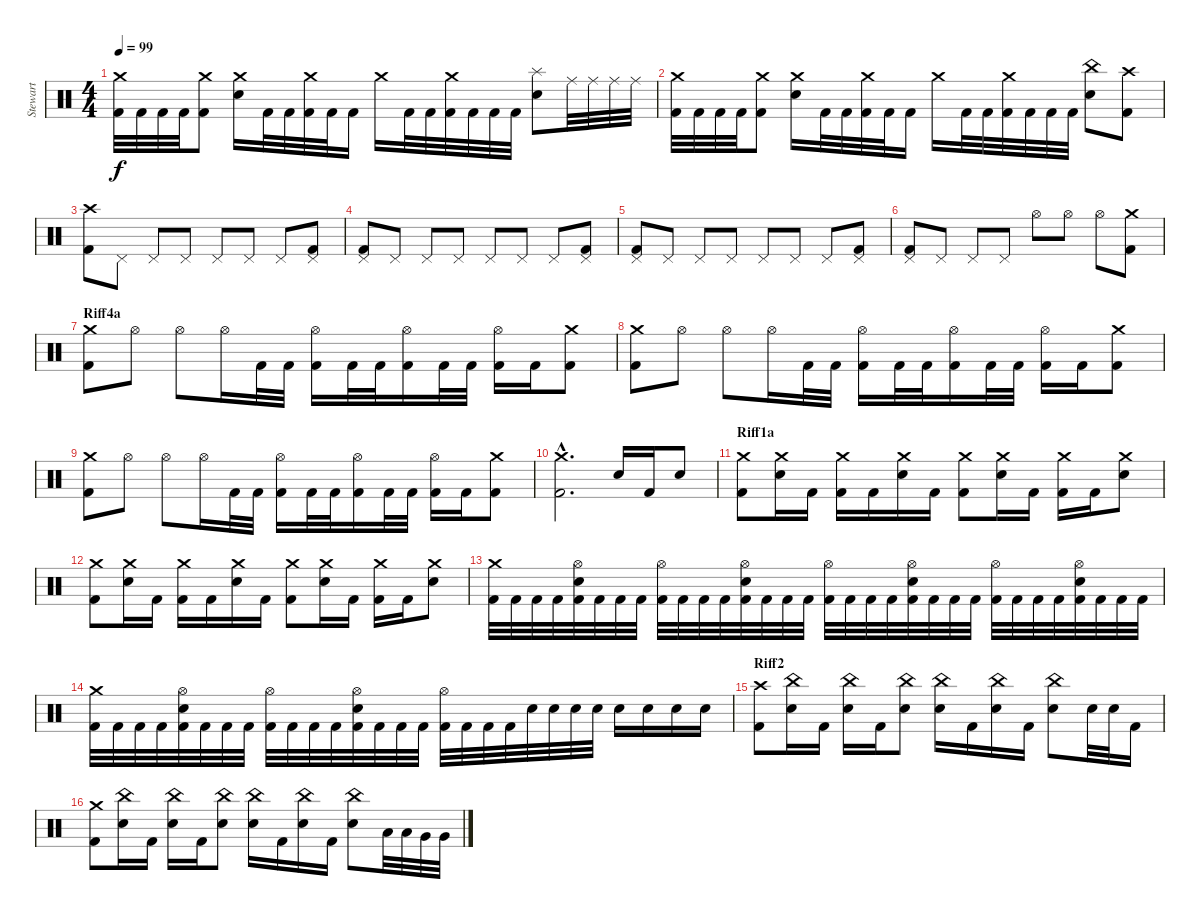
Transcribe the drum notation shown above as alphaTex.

\track ("Stewart" "Stewart") {instrument percussion}
\staff {score}
\articulation defaults
\ts (4 4)
\tempo 99
\clef neutral
\ks c
("Crash medium (hit)" "Kick (hit) 2").32{dy f} "Kick (hit) 2".32 "Kick (hit) 2".32 "Kick (hit) 2".32 ("Crash medium (hit)" "Kick (hit) 2").8 ("Crash medium (hit)" "Electric Snare (hit)").16 "Kick (hit) 2".32 "Kick (hit) 2".32 ("Crash medium (hit)" "Kick (hit) 2").32 "Kick (hit) 2".32 "Kick (hit) 2".16 "Crash medium (hit)".16 "Kick (hit) 2".32 "Kick (hit) 2".32 ("Crash medium (hit)" "Kick (hit) 2").32 "Kick (hit) 2".32 "Kick (hit) 2".32 "Kick (hit) 2".32 ("Splash (hit)" "Electric Snare (hit)").8 "Ride (middle)".32 "Ride (middle)".32 "Ride (middle)".32 "Ride (middle)".32 |
("Crash medium (hit)" "Kick (hit) 2").32 "Kick (hit) 2".32 "Kick (hit) 2".32 "Kick (hit) 2".32 ("Crash medium (hit)" "Kick (hit) 2").8 ("Crash medium (hit)" "Electric Snare (hit)").16 "Kick (hit) 2".32 "Kick (hit) 2".32 ("Crash medium (hit)" "Kick (hit) 2").32 "Kick (hit) 2".32 "Kick (hit) 2".16 "Crash medium (hit)".16 "Kick (hit) 2".32 "Kick (hit) 2".32 ("Crash medium (hit)" "Kick (hit) 2").32 "Kick (hit) 2".32 "Kick (hit) 2".32 "Kick (hit) 2".32 ("China (hit)" "Electric Snare (hit)").8 ("Crash high (hit)" "Kick (hit) 2").8 |
("Crash high (hit)" "Kick (hit) 2").8 "Pedal Hi-Hat (hit)".8 "Pedal Hi-Hat (hit)".8 "Pedal Hi-Hat (hit)".8 "Pedal Hi-Hat (hit)".8 "Pedal Hi-Hat (hit)".8 "Pedal Hi-Hat (hit)".8 ("Pedal Hi-Hat (hit)" "Kick (hit) 2").8 |
("Pedal Hi-Hat (hit)" "Kick (hit) 2").8 "Pedal Hi-Hat (hit)".8 "Pedal Hi-Hat (hit)".8 "Pedal Hi-Hat (hit)".8 "Pedal Hi-Hat (hit)".8 "Pedal Hi-Hat (hit)".8 "Pedal Hi-Hat (hit)".8 ("Pedal Hi-Hat (hit)" "Kick (hit) 2").8 |
("Pedal Hi-Hat (hit)" "Kick (hit) 2").8 "Pedal Hi-Hat (hit)".8 "Pedal Hi-Hat (hit)".8 "Pedal Hi-Hat (hit)".8 "Pedal Hi-Hat (hit)".8 "Pedal Hi-Hat (hit)".8 "Pedal Hi-Hat (hit)".8 ("Pedal Hi-Hat (hit)" "Kick (hit) 2").8 |
("Pedal Hi-Hat (hit)" "Kick (hit) 2").8 "Pedal Hi-Hat (hit)".8 "Pedal Hi-Hat (hit)".8 "Pedal Hi-Hat (hit)".8 "Hi-Hat (open)".8 "Hi-Hat (open)".8 "Hi-Hat (open)".8 ("Crash medium (hit)" "Kick (hit) 2").8 |
\section ("" "Riff4a")
("Crash medium (hit)" "Kick (hit) 2").8 "Hi-Hat (open)".8 "Hi-Hat (open)".8 "Hi-Hat (open)".16 "Kick (hit) 2".32 "Kick (hit) 2".32 ("Hi-Hat (open)" "Kick (hit) 2").16 "Kick (hit) 2".32 "Kick (hit) 2".32 ("Hi-Hat (open)" "Kick (hit) 2").16 "Kick (hit) 2".32 "Kick (hit) 2".32 ("Hi-Hat (open)" "Kick (hit) 2").16 "Kick (hit) 2".16 ("Crash medium (hit)" "Kick (hit) 2").8 |
("Crash medium (hit)" "Kick (hit) 2").8 "Hi-Hat (open)".8 "Hi-Hat (open)".8 "Hi-Hat (open)".16 "Kick (hit) 2".32 "Kick (hit) 2".32 ("Hi-Hat (open)" "Kick (hit) 2").16 "Kick (hit) 2".32 "Kick (hit) 2".32 ("Hi-Hat (open)" "Kick (hit) 2").16 "Kick (hit) 2".32 "Kick (hit) 2".32 ("Hi-Hat (open)" "Kick (hit) 2").16 "Kick (hit) 2".16 ("Crash medium (hit)" "Kick (hit) 2").8 |
("Crash medium (hit)" "Kick (hit) 2").8 "Hi-Hat (open)".8 "Hi-Hat (open)".8 "Hi-Hat (open)".16 "Kick (hit) 2".32 "Kick (hit) 2".32 ("Hi-Hat (open)" "Kick (hit) 2").16 "Kick (hit) 2".32 "Kick (hit) 2".32 ("Hi-Hat (open)" "Kick (hit) 2").16 "Kick (hit) 2".32 "Kick (hit) 2".32 ("Hi-Hat (open)" "Kick (hit) 2").16 "Kick (hit) 2".16 ("Crash medium (hit)" "Kick (hit) 2").8 |
("Crash medium (hit)"{hac} "Kick (hit) 2"{hac}).2{d} "Electric Snare (hit)".16 "Kick (hit) 2".16 "Electric Snare (hit)".8 |
\section ("" "Riff1a")
("Crash medium (hit)" "Kick (hit) 2").8 ("Crash medium (hit)" "Electric Snare (hit)").16 "Kick (hit) 2".16 ("Crash medium (hit)" "Kick (hit) 2").16 "Kick (hit) 2".16 ("Crash medium (hit)" "Electric Snare (hit)").16 "Kick (hit) 2".16 ("Crash medium (hit)" "Kick (hit) 2").8 ("Crash medium (hit)" "Electric Snare (hit)").16 "Kick (hit) 2".16 ("Crash medium (hit)" "Kick (hit) 2").16 "Kick (hit) 2".16 ("Crash medium (hit)" "Electric Snare (hit)").8 |
("Crash medium (hit)" "Kick (hit) 2").8 ("Crash medium (hit)" "Electric Snare (hit)").16 "Kick (hit) 2".16 ("Crash medium (hit)" "Kick (hit) 2").16 "Kick (hit) 2".16 ("Crash medium (hit)" "Electric Snare (hit)").16 "Kick (hit) 2".16 ("Crash medium (hit)" "Kick (hit) 2").8 ("Crash medium (hit)" "Electric Snare (hit)").16 "Kick (hit) 2".16 ("Crash medium (hit)" "Kick (hit) 2").16 "Kick (hit) 2".16 ("Crash medium (hit)" "Electric Snare (hit)").8 |
("Crash medium (hit)" "Kick (hit) 2").32 "Kick (hit) 2".32 "Kick (hit) 2".32 "Kick (hit) 2".32 ("Hi-Hat (open)" "Electric Snare (hit)" "Kick (hit) 2").32 "Kick (hit) 2".32 "Kick (hit) 2".32 "Kick (hit) 2".32 ("Hi-Hat (open)" "Kick (hit) 2").32 "Kick (hit) 2".32 "Kick (hit) 2".32 "Kick (hit) 2".32 ("Hi-Hat (open)" "Electric Snare (hit)" "Kick (hit) 2").32 "Kick (hit) 2".32 "Kick (hit) 2".32 "Kick (hit) 2".32 ("Hi-Hat (open)" "Kick (hit) 2").32 "Kick (hit) 2".32 "Kick (hit) 2".32 "Kick (hit) 2".32 ("Hi-Hat (open)" "Electric Snare (hit)" "Kick (hit) 2").32 "Kick (hit) 2".32 "Kick (hit) 2".32 "Kick (hit) 2".32 ("Hi-Hat (open)" "Kick (hit) 2").32 "Kick (hit) 2".32 "Kick (hit) 2".32 "Kick (hit) 2".32 ("Hi-Hat (open)" "Electric Snare (hit)" "Kick (hit) 2").32 "Kick (hit) 2".32 "Kick (hit) 2".32 "Kick (hit) 2".32 |
("Crash medium (hit)" "Kick (hit) 2").32 "Kick (hit) 2".32 "Kick (hit) 2".32 "Kick (hit) 2".32 ("Hi-Hat (open)" "Electric Snare (hit)" "Kick (hit) 2").32 "Kick (hit) 2".32 "Kick (hit) 2".32 "Kick (hit) 2".32 ("Hi-Hat (open)" "Kick (hit) 2").32 "Kick (hit) 2".32 "Kick (hit) 2".32 "Kick (hit) 2".32 ("Hi-Hat (open)" "Electric Snare (hit)" "Kick (hit) 2").32 "Kick (hit) 2".32 "Kick (hit) 2".32 "Kick (hit) 2".32 ("Hi-Hat (open)" "Kick (hit) 2").32 "Kick (hit) 2".32 "Kick (hit) 2".32 "Kick (hit) 2".32 "Electric Snare (hit)".32 "Electric Snare (hit)".32 "Electric Snare (hit)".32 "Electric Snare (hit)".32 "Electric Snare (hit)".16 "Electric Snare (hit)".16 "Electric Snare (hit)".16 "Electric Snare (hit)".16 |
\section ("" "Riff2")
("Crash high (hit)" "Kick (hit) 2").8 ("China (hit)" "Electric Snare (hit)").16 "Kick (hit) 2".16 ("China (hit)" "Electric Snare (hit)").16 "Kick (hit) 2".16 ("China (hit)" "Electric Snare (hit)").8 ("China (hit)" "Electric Snare (hit)").16 "Kick (hit) 2".16 ("China (hit)" "Electric Snare (hit)").16 "Kick (hit) 2".16 ("China (hit)" "Electric Snare (hit)").8 "Electric Snare (hit)".32 "Electric Snare (hit)".32 "Kick (hit) 2".16 |
("Crash medium (hit)" "Kick (hit) 2").8 ("China (hit)" "Electric Snare (hit)").16 "Kick (hit) 2".16 ("China (hit)" "Electric Snare (hit)").16 "Kick (hit) 2".16 ("China (hit)" "Electric Snare (hit)").8 ("China (hit)" "Electric Snare (hit)").16 "Kick (hit) 2".16 ("China (hit)" "Electric Snare (hit)").16 "Kick (hit) 2".16 ("China (hit)" "Electric Snare (hit)").8 "Low Tom (hit)".32 "Low Tom (hit)".32 "Very Low Tom (hit)".32 "Very Low Tom (hit)".32
